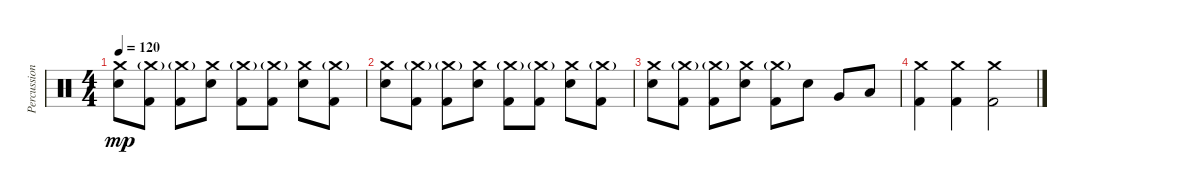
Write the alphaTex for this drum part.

\track ("Percussion" "Percussion") {instrument percussion}
\staff {score}
\articulation defaults
\ts (4 4)
\tempo 120
\clef neutral
\ks c
("Crash medium (hit)" "Electric Snare (hit)").8{dy mp} ("Crash medium (hit)"{g} "Kick (hit) 2").8 ("Crash medium (hit)"{g} "Kick (hit) 2").8 ("Crash medium (hit)" "Electric Snare (hit)").8 ("Crash medium (hit)"{g} "Kick (hit) 2").8 ("Crash medium (hit)"{g} "Kick (hit) 2").8 ("Crash medium (hit)" "Electric Snare (hit)").8 ("Crash medium (hit)"{g} "Kick (hit) 2").8 |
("Crash medium (hit)" "Electric Snare (hit)").8 ("Crash medium (hit)"{g} "Kick (hit) 2").8 ("Crash medium (hit)"{g} "Kick (hit) 2").8 ("Crash medium (hit)" "Electric Snare (hit)").8 ("Crash medium (hit)"{g} "Kick (hit) 2").8 ("Crash medium (hit)"{g} "Kick (hit) 2").8 ("Crash medium (hit)" "Electric Snare (hit)").8 ("Crash medium (hit)"{g} "Kick (hit) 2").8 |
("Crash medium (hit)" "Electric Snare (hit)").8 ("Crash medium (hit)"{g} "Kick (hit) 2").8 ("Crash medium (hit)"{g} "Kick (hit) 2").8 ("Crash medium (hit)" "Electric Snare (hit)").8 ("Crash medium (hit)"{g} "Kick (hit) 2").8 "Electric Snare (hit)".8 "Very Low Tom (hit)".8 "Low Floor Tom (hit)".8 |
("Crash medium (hit)" "Kick (hit) 2").4 ("Crash medium (hit)" "Kick (hit) 2").4 ("Crash medium (hit)" "Kick (hit) 2").2
